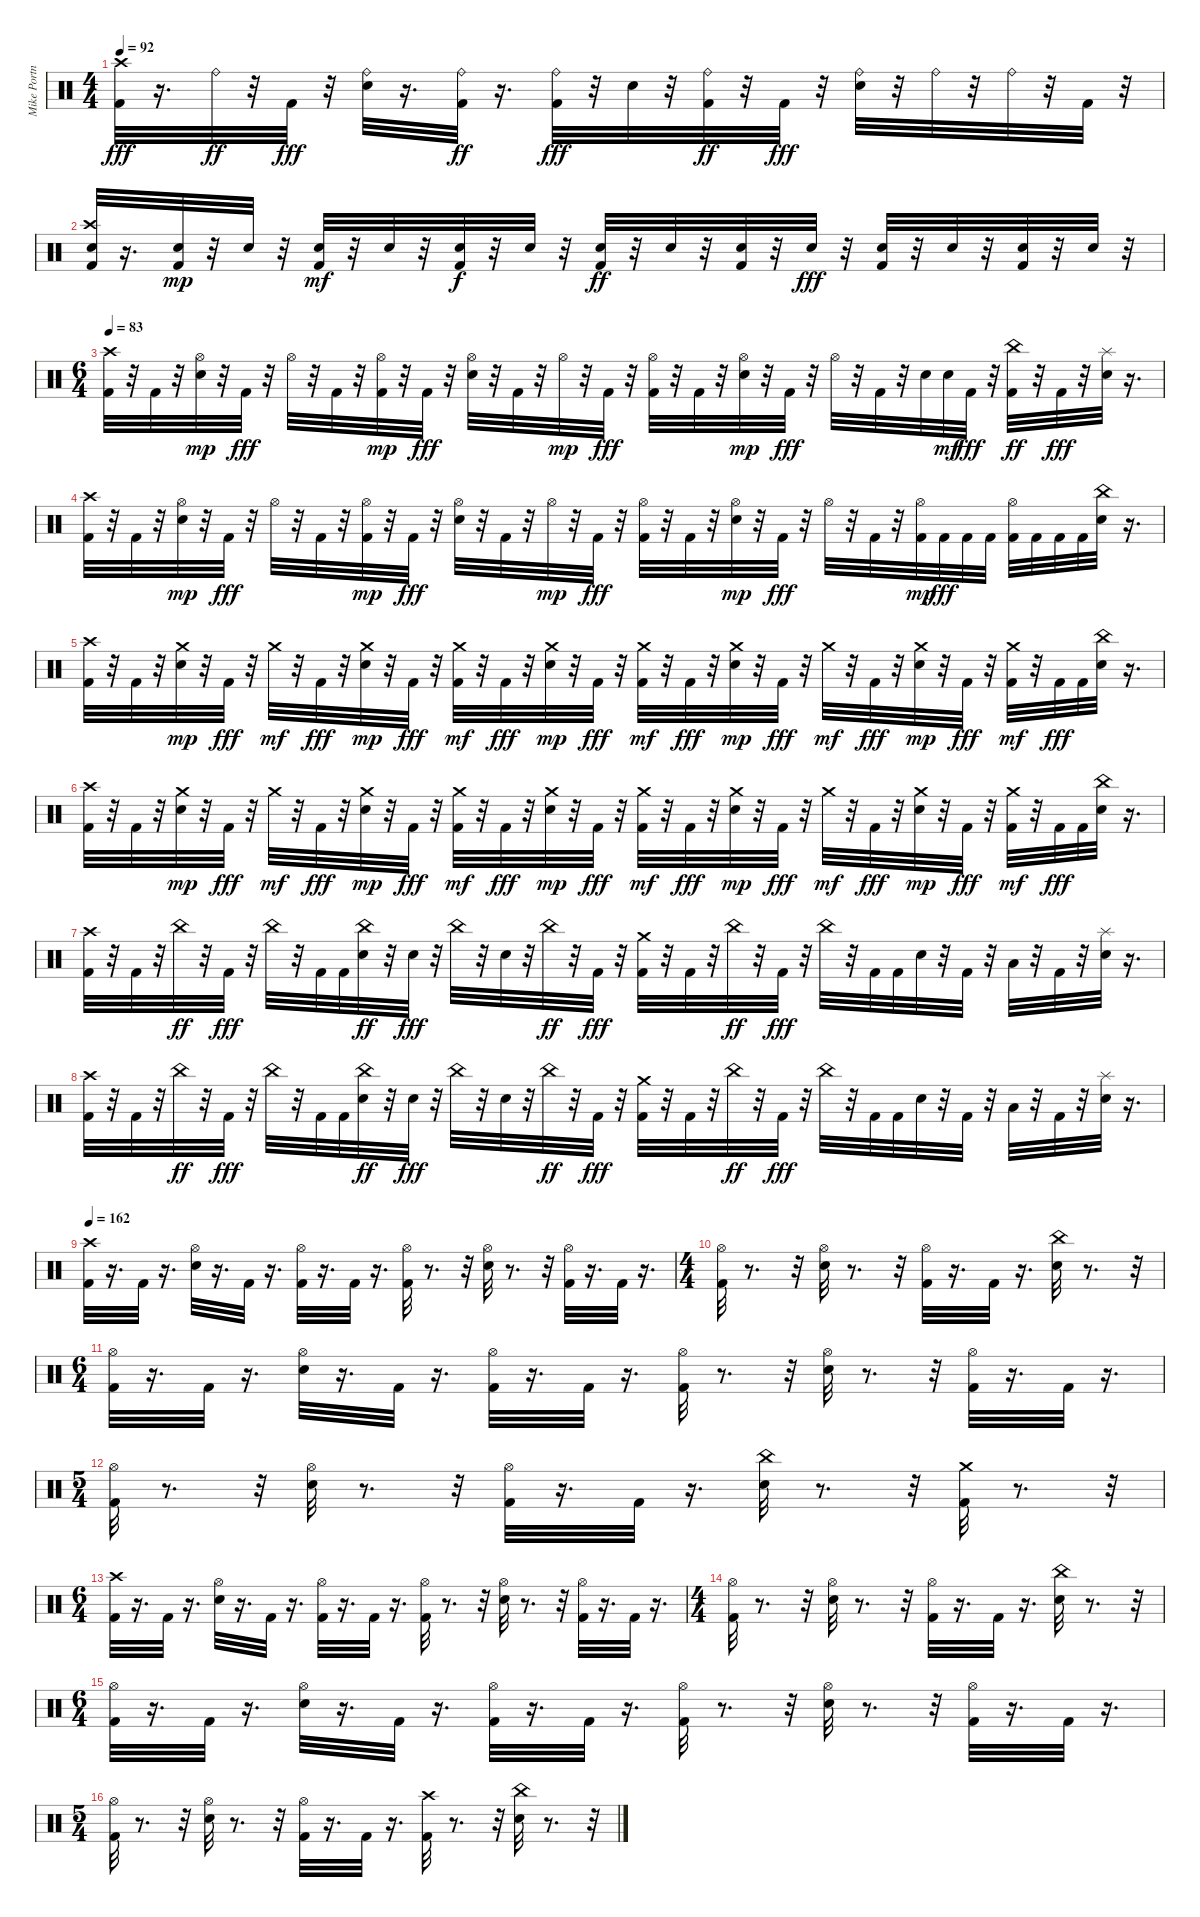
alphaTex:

\track ("Mike Portnoy" "Mike Portn") {instrument percussion}
\staff {score}
\articulation defaults
\ts (4 4)
\tempo 92
\clef neutral
\ks c
("Kick (hit) 2" "Crash high (hit)").32{dy fff} r.16{d} "Ride (bell)".32{dy ff} r.32 "Kick (hit) 2".32{dy fff} r.32 ("Ride (bell)" "Snare (hit) 2").32 r.16{d} ("Kick (hit) 2" "Ride (bell)").32{dy ff} r.16{d} ("Kick (hit) 2" "Ride (bell)").32{dy fff} r.32 "Snare (hit) 2".32 r.32 ("Kick (hit) 2" "Ride (bell)").32{dy ff} r.32 "Kick (hit) 2".32{dy fff} r.32 ("Ride (bell)" "Snare (hit) 2").32 r.32 "Ride (bell)".32 r.32 "Ride (bell)".32 r.32 "Kick (hit) 2".32 r.32 |
("Kick (hit) 2" "Snare (hit) 2" "Crash high (hit)").32 r.16{d} ("Kick (hit) 2" "Snare (hit) 2").32{dy mp} r.32 "Snare (hit) 2".32 r.32 ("Kick (hit) 2" "Snare (hit) 2").32{dy mf} r.32 "Snare (hit) 2".32 r.32 ("Kick (hit) 2" "Snare (hit) 2").32{dy f} r.32 "Snare (hit) 2".32 r.32 ("Kick (hit) 2" "Snare (hit) 2").32{dy ff} r.32 "Snare (hit) 2".32 r.32 ("Kick (hit) 2" "Snare (hit) 2").32 r.32 "Snare (hit) 2".32{dy fff} r.32 ("Kick (hit) 2" "Snare (hit) 2").32 r.32 "Snare (hit) 2".32 r.32 ("Kick (hit) 2" "Snare (hit) 2").32 r.32 "Snare (hit) 2".32 r.32 |
\ts (6 4)
\tempo 83
("Kick (hit) 2" "Crash high (hit)").32 r.32 "Kick (hit) 2".32 r.32 ("Snare (hit) 2" "Hi-Hat (open)").32{dy mp} r.32 "Kick (hit) 2".32{dy fff} r.32 "Hi-Hat (open)".32 r.32 "Kick (hit) 2".32 r.32 ("Kick (hit) 2" "Hi-Hat (open)").32{dy mp} r.32 "Kick (hit) 2".32{dy fff} r.32 ("Snare (hit) 2" "Hi-Hat (open)").32 r.32 "Kick (hit) 2".32 r.32 "Hi-Hat (open)".32{dy mp} r.32 "Kick (hit) 2".32{dy fff} r.32 ("Kick (hit) 2" "Hi-Hat (open)").32 r.32 "Kick (hit) 2".32 r.32 ("Snare (hit) 2" "Hi-Hat (open)").32{dy mp} r.32 "Kick (hit) 2".32{dy fff} r.32 "Hi-Hat (open)".32 r.32 "Kick (hit) 2".32 r.32 "Snare (hit) 2".32 "Snare (hit) 2".32{dy mf} "Kick (hit) 2".32{dy fff} r.32 ("Kick (hit) 2" "China (hit)").32{dy ff} r.32 "Kick (hit) 2".32{dy fff} r.32 ("Snare (hit) 2" "Splash (hit)").32 r.16{d} |
("Kick (hit) 2" "Crash high (hit)").32 r.32 "Kick (hit) 2".32 r.32 ("Snare (hit) 2" "Hi-Hat (open)").32{dy mp} r.32 "Kick (hit) 2".32{dy fff} r.32 "Hi-Hat (open)".32 r.32 "Kick (hit) 2".32 r.32 ("Kick (hit) 2" "Hi-Hat (open)").32{dy mp} r.32 "Kick (hit) 2".32{dy fff} r.32 ("Snare (hit) 2" "Hi-Hat (open)").32 r.32 "Kick (hit) 2".32 r.32 "Hi-Hat (open)".32{dy mp} r.32 "Kick (hit) 2".32{dy fff} r.32 ("Kick (hit) 2" "Hi-Hat (open)").32 r.32 "Kick (hit) 2".32 r.32 ("Snare (hit) 2" "Hi-Hat (open)").32{dy mp} r.32 "Kick (hit) 2".32{dy fff} r.32 "Hi-Hat (open)".32 r.32 "Kick (hit) 2".32 r.32 ("Kick (hit) 2" "Hi-Hat (open)").32{dy mp} "Kick (hit) 2".32{dy fff} "Kick (hit) 2".32 "Kick (hit) 2".32 ("Kick (hit) 2" "Hi-Hat (open)").32 "Kick (hit) 2".32 "Kick (hit) 2".32 "Kick (hit) 2".32 ("Snare (hit) 2" "China (hit)").32 r.16{d} |
("Kick (hit) 2" "Crash high (hit)").32 r.32 "Kick (hit) 2".32 r.32 ("Snare (hit) 2" "Crash medium (hit)").32{dy mp} r.32 "Kick (hit) 2".32{dy fff} r.32 "Crash medium (hit)".32{dy mf} r.32 "Kick (hit) 2".32{dy fff} r.32 ("Snare (hit) 2" "Crash medium (hit)").32{dy mp} r.32 "Kick (hit) 2".32{dy fff} r.32 ("Kick (hit) 2" "Crash medium (hit)").32{dy mf} r.32 "Kick (hit) 2".32{dy fff} r.32 ("Snare (hit) 2" "Crash medium (hit)").32{dy mp} r.32 "Kick (hit) 2".32{dy fff} r.32 ("Kick (hit) 2" "Crash medium (hit)").32{dy mf} r.32 "Kick (hit) 2".32{dy fff} r.32 ("Snare (hit) 2" "Crash medium (hit)").32{dy mp} r.32 "Kick (hit) 2".32{dy fff} r.32 "Crash medium (hit)".32{dy mf} r.32 "Kick (hit) 2".32{dy fff} r.32 ("Snare (hit) 2" "Crash medium (hit)").32{dy mp} r.32 "Kick (hit) 2".32{dy fff} r.32 ("Kick (hit) 2" "Crash medium (hit)").32{dy mf} r.32 "Kick (hit) 2".32{dy fff} "Kick (hit) 2".32 ("Snare (hit) 2" "China (hit)").32 r.16{d} |
("Kick (hit) 2" "Crash high (hit)").32 r.32 "Kick (hit) 2".32 r.32 ("Snare (hit) 2" "Crash medium (hit)").32{dy mp} r.32 "Kick (hit) 2".32{dy fff} r.32 "Crash medium (hit)".32{dy mf} r.32 "Kick (hit) 2".32{dy fff} r.32 ("Snare (hit) 2" "Crash medium (hit)").32{dy mp} r.32 "Kick (hit) 2".32{dy fff} r.32 ("Kick (hit) 2" "Crash medium (hit)").32{dy mf} r.32 "Kick (hit) 2".32{dy fff} r.32 ("Snare (hit) 2" "Crash medium (hit)").32{dy mp} r.32 "Kick (hit) 2".32{dy fff} r.32 ("Kick (hit) 2" "Crash medium (hit)").32{dy mf} r.32 "Kick (hit) 2".32{dy fff} r.32 ("Snare (hit) 2" "Crash medium (hit)").32{dy mp} r.32 "Kick (hit) 2".32{dy fff} r.32 "Crash medium (hit)".32{dy mf} r.32 "Kick (hit) 2".32{dy fff} r.32 ("Snare (hit) 2" "Crash medium (hit)").32{dy mp} r.32 "Kick (hit) 2".32{dy fff} r.32 ("Kick (hit) 2" "Crash medium (hit)").32{dy mf} r.32 "Kick (hit) 2".32{dy fff} "Kick (hit) 2".32 ("Snare (hit) 2" "China (hit)").32 r.16{d} |
("Kick (hit) 2" "Crash high (hit)").32 r.32 "Kick (hit) 2".32 r.32 "China (hit)".32{dy ff} r.32 "Kick (hit) 2".32{dy fff} r.32 "China (hit)".32 r.32 "Kick (hit) 2".32 "Kick (hit) 2".32 ("Snare (hit) 2" "China (hit)").32{dy ff} r.32 "Snare (hit) 2".32{dy fff} r.32 "China (hit)".32 r.32 "Snare (hit) 2".32 r.32 "China (hit)".32{dy ff} r.32 "Kick (hit) 2".32{dy fff} r.32 ("Kick (hit) 2" "Crash medium (hit)").32 r.32 "Kick (hit) 2".32 r.32 "China (hit)".32{dy ff} r.32 "Kick (hit) 2".32{dy fff} r.32 "China (hit)".32 r.32 "Kick (hit) 2".32 "Kick (hit) 2".32 "Snare (hit) 2".32 r.32 "Kick (hit) 2".32 r.32 "Low Tom (hit)".32 r.32 "Kick (hit) 2".32 r.32 ("Snare (hit) 2" "Splash (hit)").32 r.16{d} |
("Kick (hit) 2" "Crash high (hit)").32 r.32 "Kick (hit) 2".32 r.32 "China (hit)".32{dy ff} r.32 "Kick (hit) 2".32{dy fff} r.32 "China (hit)".32 r.32 "Kick (hit) 2".32 "Kick (hit) 2".32 ("Snare (hit) 2" "China (hit)").32{dy ff} r.32 "Snare (hit) 2".32{dy fff} r.32 "China (hit)".32 r.32 "Snare (hit) 2".32 r.32 "China (hit)".32{dy ff} r.32 "Kick (hit) 2".32{dy fff} r.32 ("Kick (hit) 2" "Crash medium (hit)").32 r.32 "Kick (hit) 2".32 r.32 "China (hit)".32{dy ff} r.32 "Kick (hit) 2".32{dy fff} r.32 "China (hit)".32 r.32 "Kick (hit) 2".32 "Kick (hit) 2".32 "Snare (hit) 2".32 r.32 "Kick (hit) 2".32 r.32 "Low Tom (hit)".32 r.32 "Kick (hit) 2".32 r.32 ("Snare (hit) 2" "Splash (hit)").32 r.16{d} |
\tempo 162
("Crash high (hit)" "Kick (hit) 2").32 r.16{d} "Kick (hit) 2".32 r.16{d} ("Hi-Hat (open)" "Snare (hit) 2").32 r.16{d} "Kick (hit) 2".32 r.16{d} ("Hi-Hat (open)" "Kick (hit) 2").32 r.16{d} "Kick (hit) 2".32 r.16{d} ("Hi-Hat (open)" "Kick (hit) 2").32 r.8{d} r.32 ("Hi-Hat (open)" "Snare (hit) 2").32 r.8{d} r.32 ("Hi-Hat (open)" "Kick (hit) 2").32 r.16{d} "Kick (hit) 2".32 r.16{d} |
\ts (4 4)
("Hi-Hat (open)" "Kick (hit) 2").32 r.8{d} r.32 ("Hi-Hat (open)" "Snare (hit) 2").32 r.8{d} r.32 ("Hi-Hat (open)" "Kick (hit) 2").32 r.16{d} "Kick (hit) 2".32 r.16{d} ("Snare (hit) 2" "China (hit)").32 r.8{d} r.32 |
\ts (6 4)
("Hi-Hat (open)" "Kick (hit) 2").32 r.16{d} "Kick (hit) 2".32 r.16{d} ("Hi-Hat (open)" "Snare (hit) 2").32 r.16{d} "Kick (hit) 2".32 r.16{d} ("Hi-Hat (open)" "Kick (hit) 2").32 r.16{d} "Kick (hit) 2".32 r.16{d} ("Hi-Hat (open)" "Kick (hit) 2").32 r.8{d} r.32 ("Hi-Hat (open)" "Snare (hit) 2").32 r.8{d} r.32 ("Hi-Hat (open)" "Kick (hit) 2").32 r.16{d} "Kick (hit) 2".32 r.16{d} |
\ts (5 4)
("Hi-Hat (open)" "Kick (hit) 2").32 r.8{d} r.32 ("Hi-Hat (open)" "Snare (hit) 2").32 r.8{d} r.32 ("Hi-Hat (open)" "Kick (hit) 2").32 r.16{d} "Kick (hit) 2".32 r.16{d} ("Snare (hit) 2" "China (hit)").32 r.8{d} r.32 ("Kick (hit) 2" "Crash medium (hit)").32 r.8{d} r.32 |
\ts (6 4)
("Crash high (hit)" "Kick (hit) 2").32 r.16{d} "Kick (hit) 2".32 r.16{d} ("Hi-Hat (open)" "Snare (hit) 2").32 r.16{d} "Kick (hit) 2".32 r.16{d} ("Hi-Hat (open)" "Kick (hit) 2").32 r.16{d} "Kick (hit) 2".32 r.16{d} ("Hi-Hat (open)" "Kick (hit) 2").32 r.8{d} r.32 ("Hi-Hat (open)" "Snare (hit) 2").32 r.8{d} r.32 ("Hi-Hat (open)" "Kick (hit) 2").32 r.16{d} "Kick (hit) 2".32 r.16{d} |
\ts (4 4)
("Hi-Hat (open)" "Kick (hit) 2").32 r.8{d} r.32 ("Hi-Hat (open)" "Snare (hit) 2").32 r.8{d} r.32 ("Hi-Hat (open)" "Kick (hit) 2").32 r.16{d} "Kick (hit) 2".32 r.16{d} ("Snare (hit) 2" "China (hit)").32 r.8{d} r.32 |
\ts (6 4)
("Hi-Hat (open)" "Kick (hit) 2").32 r.16{d} "Kick (hit) 2".32 r.16{d} ("Hi-Hat (open)" "Snare (hit) 2").32 r.16{d} "Kick (hit) 2".32 r.16{d} ("Hi-Hat (open)" "Kick (hit) 2").32 r.16{d} "Kick (hit) 2".32 r.16{d} ("Hi-Hat (open)" "Kick (hit) 2").32 r.8{d} r.32 ("Hi-Hat (open)" "Snare (hit) 2").32 r.8{d} r.32 ("Hi-Hat (open)" "Kick (hit) 2").32 r.16{d} "Kick (hit) 2".32 r.16{d} |
\ts (5 4)
("Hi-Hat (open)" "Kick (hit) 2").32 r.8{d} r.32 ("Hi-Hat (open)" "Snare (hit) 2").32 r.8{d} r.32 ("Hi-Hat (open)" "Kick (hit) 2").32 r.16{d} "Kick (hit) 2".32 r.16{d} ("Kick (hit) 2" "Crash high (hit)").32 r.8{d} r.32 ("Snare (hit) 2" "China (hit)").32 r.8{d} r.32
